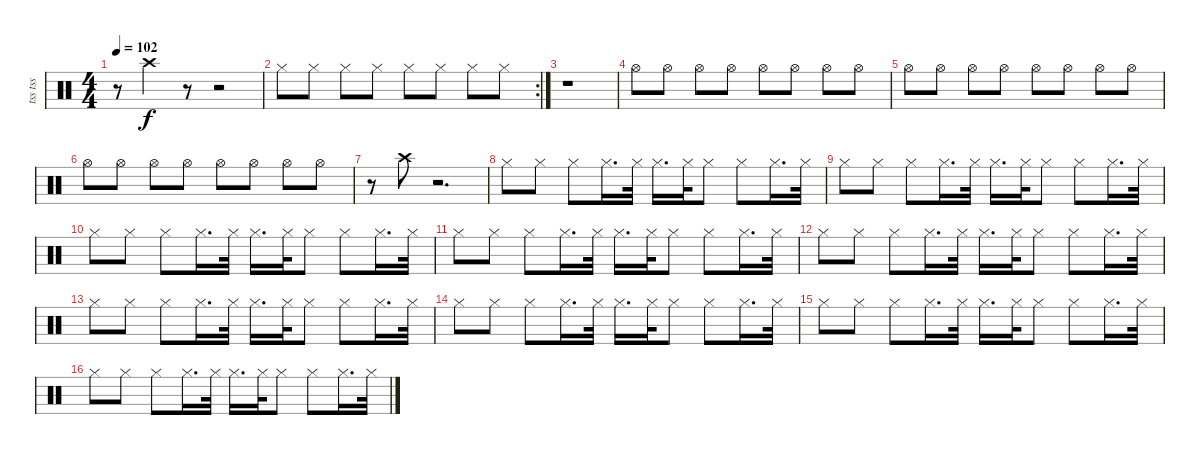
\track ("tss tss" "tss tss") {instrument percussion}
\staff {score}
\articulation defaults
\ts (4 4)
\tempo 102
\clef neutral
\ks c
r.8{dy f} "Crash high (hit)".4 r.8 r.2 |
\rc 2 "Hi-Hat (closed)".8 "Hi-Hat (closed)".8 "Hi-Hat (closed)".8 "Hi-Hat (closed)".8 "Hi-Hat (closed)".8 "Hi-Hat (closed)".8 "Hi-Hat (closed)".8 "Hi-Hat (closed)".8
|
r.1 |
"Hi-Hat (open)".8 "Hi-Hat (open)".8 "Hi-Hat (open)".8 "Hi-Hat (open)".8 "Hi-Hat (open)".8 "Hi-Hat (open)".8 "Hi-Hat (open)".8 "Hi-Hat (open)".8 |
"Hi-Hat (open)".8 "Hi-Hat (open)".8 "Hi-Hat (open)".8 "Hi-Hat (open)".8 "Hi-Hat (open)".8 "Hi-Hat (open)".8 "Hi-Hat (open)".8 "Hi-Hat (open)".8 |
"Hi-Hat (open)".8 "Hi-Hat (open)".8 "Hi-Hat (open)".8 "Hi-Hat (open)".8 "Hi-Hat (open)".8 "Hi-Hat (open)".8 "Hi-Hat (open)".8 "Hi-Hat (open)".8 |
r.8 "Crash high (hit)".8 r.2{d} |
"Hi-Hat (closed)".8 "Hi-Hat (closed)".8 "Hi-Hat (closed)".8 "Hi-Hat (closed)".16{d} "Hi-Hat (closed)".32 "Hi-Hat (closed)".16{d} "Hi-Hat (closed)".32 "Hi-Hat (closed)".8 "Hi-Hat (closed)".8 "Hi-Hat (closed)".16{d} "Hi-Hat (closed)".32 |
"Hi-Hat (closed)".8 "Hi-Hat (closed)".8 "Hi-Hat (closed)".8 "Hi-Hat (closed)".16{d} "Hi-Hat (closed)".32 "Hi-Hat (closed)".16{d} "Hi-Hat (closed)".32 "Hi-Hat (closed)".8 "Hi-Hat (closed)".8 "Hi-Hat (closed)".16{d} "Hi-Hat (closed)".32 |
"Hi-Hat (closed)".8 "Hi-Hat (closed)".8 "Hi-Hat (closed)".8 "Hi-Hat (closed)".16{d} "Hi-Hat (closed)".32 "Hi-Hat (closed)".16{d} "Hi-Hat (closed)".32 "Hi-Hat (closed)".8 "Hi-Hat (closed)".8 "Hi-Hat (closed)".16{d} "Hi-Hat (closed)".32 |
"Hi-Hat (closed)".8 "Hi-Hat (closed)".8 "Hi-Hat (closed)".8 "Hi-Hat (closed)".16{d} "Hi-Hat (closed)".32 "Hi-Hat (closed)".16{d} "Hi-Hat (closed)".32 "Hi-Hat (closed)".8 "Hi-Hat (closed)".8 "Hi-Hat (closed)".16{d} "Hi-Hat (closed)".32 |
"Hi-Hat (closed)".8 "Hi-Hat (closed)".8 "Hi-Hat (closed)".8 "Hi-Hat (closed)".16{d} "Hi-Hat (closed)".32 "Hi-Hat (closed)".16{d} "Hi-Hat (closed)".32 "Hi-Hat (closed)".8 "Hi-Hat (closed)".8 "Hi-Hat (closed)".16{d} "Hi-Hat (closed)".32 |
"Hi-Hat (closed)".8 "Hi-Hat (closed)".8 "Hi-Hat (closed)".8 "Hi-Hat (closed)".16{d} "Hi-Hat (closed)".32 "Hi-Hat (closed)".16{d} "Hi-Hat (closed)".32 "Hi-Hat (closed)".8 "Hi-Hat (closed)".8 "Hi-Hat (closed)".16{d} "Hi-Hat (closed)".32 |
"Hi-Hat (closed)".8 "Hi-Hat (closed)".8 "Hi-Hat (closed)".8 "Hi-Hat (closed)".16{d} "Hi-Hat (closed)".32 "Hi-Hat (closed)".16{d} "Hi-Hat (closed)".32 "Hi-Hat (closed)".8 "Hi-Hat (closed)".8 "Hi-Hat (closed)".16{d} "Hi-Hat (closed)".32 |
"Hi-Hat (closed)".8 "Hi-Hat (closed)".8 "Hi-Hat (closed)".8 "Hi-Hat (closed)".16{d} "Hi-Hat (closed)".32 "Hi-Hat (closed)".16{d} "Hi-Hat (closed)".32 "Hi-Hat (closed)".8 "Hi-Hat (closed)".8 "Hi-Hat (closed)".16{d} "Hi-Hat (closed)".32 |
"Hi-Hat (closed)".8 "Hi-Hat (closed)".8 "Hi-Hat (closed)".8 "Hi-Hat (closed)".16{d} "Hi-Hat (closed)".32 "Hi-Hat (closed)".16{d} "Hi-Hat (closed)".32 "Hi-Hat (closed)".8 "Hi-Hat (closed)".8 "Hi-Hat (closed)".16{d} "Hi-Hat (closed)".32
